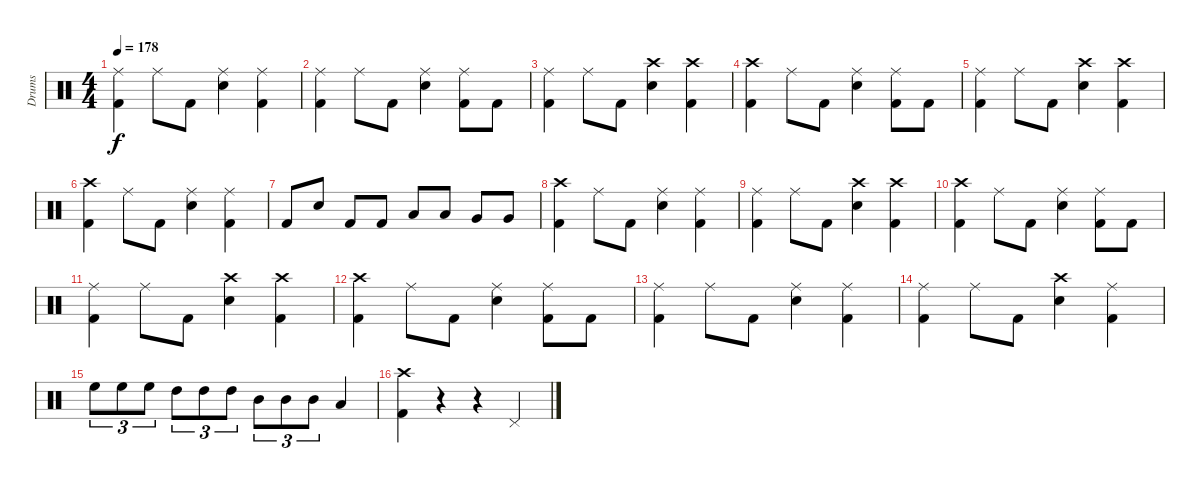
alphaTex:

\track ("Drums" "Drums") {mute instrument percussion}
\staff {score}
\articulation defaults
\ts (4 4)
\tempo 178
\clef neutral
\ks c
("Ride (middle)" "Kick (hit) 2").4{dy f} "Ride (middle)".8 "Kick (hit) 2".8 ("Ride (middle)" "Electric Snare (hit)").4 ("Ride (middle)" "Kick (hit) 2").4 |
("Ride (middle)" "Kick (hit) 2").4 "Ride (middle)".8 "Kick (hit) 2".8 ("Ride (middle)" "Electric Snare (hit)").4 ("Ride (middle)" "Kick (hit) 2").8 "Kick (hit) 2".8 |
("Ride (middle)" "Kick (hit) 2").4 "Ride (middle)".8 "Kick (hit) 2".8 ("Crash high (hit)" "Electric Snare (hit)").4 ("Crash high (hit)" "Kick (hit) 2").4 |
("Crash high (hit)" "Kick (hit) 2").4 "Ride (middle)".8 "Kick (hit) 2".8 ("Ride (middle)" "Electric Snare (hit)").4 ("Ride (middle)" "Kick (hit) 2").8 "Kick (hit) 2".8 |
("Ride (middle)" "Kick (hit) 2").4 "Ride (middle)".8 "Kick (hit) 2".8 ("Crash high (hit)" "Electric Snare (hit)").4 ("Crash high (hit)" "Kick (hit) 2").4 |
("Crash high (hit)" "Kick (hit) 2").4 "Ride (middle)".8 "Kick (hit) 2".8 ("Ride (middle)" "Electric Snare (hit)").4 ("Ride (middle)" "Kick (hit) 2").4 |
"Kick (hit) 2".8 "Electric Snare (hit)".8 "Kick (hit) 2".8 "Kick (hit) 2".8 "Low Tom (hit)".8 "Low Tom (hit)".8 "Very Low Tom (hit)".8 "Very Low Tom (hit)".8 |
("Crash high (hit)" "Kick (hit) 2").4 "Ride (middle)".8 "Kick (hit) 2".8 ("Ride (middle)" "Electric Snare (hit)").4 ("Ride (middle)" "Kick (hit) 2").4 |
("Ride (middle)" "Kick (hit) 2").4 "Ride (middle)".8 "Kick (hit) 2".8 ("Crash high (hit)" "Electric Snare (hit)").4 ("Crash high (hit)" "Kick (hit) 2").4 |
("Crash high (hit)" "Kick (hit) 2").4 "Ride (middle)".8 "Kick (hit) 2".8 ("Ride (middle)" "Electric Snare (hit)").4 ("Ride (middle)" "Kick (hit) 2").8 "Kick (hit) 2".8 |
("Ride (middle)" "Kick (hit) 2").4 "Ride (middle)".8 "Kick (hit) 2".8 ("Crash high (hit)" "Electric Snare (hit)").4 ("Crash high (hit)" "Kick (hit) 2").4 |
("Crash high (hit)" "Kick (hit) 2").4 "Ride (middle)".8 "Kick (hit) 2".8 ("Ride (middle)" "Electric Snare (hit)").4 ("Ride (middle)" "Kick (hit) 2").8 "Kick (hit) 2".8 |
("Ride (middle)" "Kick (hit) 2").4 "Ride (middle)".8 "Kick (hit) 2".8 ("Ride (middle)" "Electric Snare (hit)").4 ("Ride (middle)" "Kick (hit) 2").4 |
("Ride (middle)" "Kick (hit) 2").4 "Ride (middle)".8 "Kick (hit) 2".8 ("Crash high (hit)" "Electric Snare (hit)").4 ("Ride (middle)" "Kick (hit) 2").4 |
"High Floor Tom (hit)".8{tu (3 2)} "High Floor Tom (hit)".8{tu (3 2)} "High Floor Tom (hit)".8{tu (3 2)} "High Tom (hit)".8{tu (3 2)} "High Tom (hit)".8{tu (3 2)} "High Tom (hit)".8{tu (3 2)} "Mid Tom (hit)".8{tu (3 2)} "Mid Tom (hit)".8{tu (3 2)} "Mid Tom (hit)".8{tu (3 2)} "Low Tom (hit)".4 |
("Crash high (hit)" "Kick (hit) 2").4 r.4 r.4 "Pedal Hi-Hat (hit)".4
